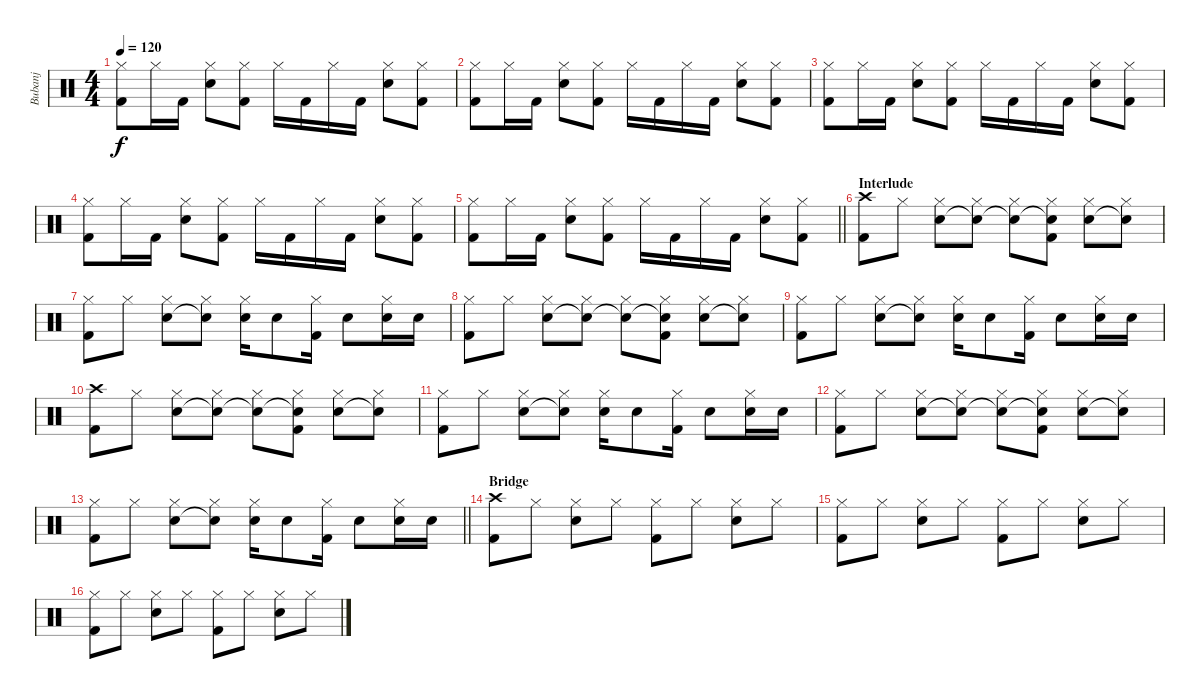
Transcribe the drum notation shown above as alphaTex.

\track ("Bubanj" "Bubanj") {instrument percussion}
\staff {score}
\articulation defaults
\ts (4 4)
\tempo 120
\clef neutral
\ks c
("Hi-Hat (closed)" "Kick (hit) 2").8{dy f} "Hi-Hat (closed)".16 "Kick (hit) 2".16 ("Hi-Hat (closed)" "Electric Snare (hit)").8 ("Hi-Hat (closed)" "Kick (hit) 2").8 "Hi-Hat (closed)".16 "Kick (hit) 2".16 "Hi-Hat (closed)".16 "Kick (hit) 2".16 ("Hi-Hat (closed)" "Electric Snare (hit)").8 ("Hi-Hat (closed)" "Kick (hit) 2").8 |
("Hi-Hat (closed)" "Kick (hit) 2").8 "Hi-Hat (closed)".16 "Kick (hit) 2".16 ("Hi-Hat (closed)" "Electric Snare (hit)").8 ("Hi-Hat (closed)" "Kick (hit) 2").8 "Hi-Hat (closed)".16 "Kick (hit) 2".16 "Hi-Hat (closed)".16 "Kick (hit) 2".16 ("Hi-Hat (closed)" "Electric Snare (hit)").8 ("Hi-Hat (closed)" "Kick (hit) 2").8 |
("Hi-Hat (closed)" "Kick (hit) 2").8 "Hi-Hat (closed)".16 "Kick (hit) 2".16 ("Hi-Hat (closed)" "Electric Snare (hit)").8 ("Hi-Hat (closed)" "Kick (hit) 2").8 "Hi-Hat (closed)".16 "Kick (hit) 2".16 "Hi-Hat (closed)".16 "Kick (hit) 2".16 ("Hi-Hat (closed)" "Electric Snare (hit)").8 ("Hi-Hat (closed)" "Kick (hit) 2").8 |
("Hi-Hat (closed)" "Kick (hit) 2").8 "Hi-Hat (closed)".16 "Kick (hit) 2".16 ("Hi-Hat (closed)" "Electric Snare (hit)").8 ("Hi-Hat (closed)" "Kick (hit) 2").8 "Hi-Hat (closed)".16 "Kick (hit) 2".16 "Hi-Hat (closed)".16 "Kick (hit) 2".16 ("Hi-Hat (closed)" "Electric Snare (hit)").8 ("Hi-Hat (closed)" "Kick (hit) 2").8 |
\barLineRight lightlight
("Hi-Hat (closed)" "Kick (hit) 2").8 "Hi-Hat (closed)".16 "Kick (hit) 2".16 ("Hi-Hat (closed)" "Electric Snare (hit)").8 ("Hi-Hat (closed)" "Kick (hit) 2").8 "Hi-Hat (closed)".16 "Kick (hit) 2".16 "Hi-Hat (closed)".16 "Kick (hit) 2".16 ("Hi-Hat (closed)" "Electric Snare (hit)").8 ("Hi-Hat (closed)" "Kick (hit) 2").8 |
\section ("" "Interlude")
("Crash high (hit)" "Kick (hit) 2").8{volume 14} "Hi-Hat (closed)".8 ("Hi-Hat (closed)" "Electric Snare (hit)").8 ("Hi-Hat (closed)" "Snare (hit)"{t}).8 ("Hi-Hat (closed)" "Snare (hit)"{t}).8 ("Hi-Hat (closed)" "Snare (hit)"{t} "Kick (hit) 2").8 ("Hi-Hat (closed)" "Electric Snare (hit)").8 ("Hi-Hat (closed)" "Snare (hit)"{t}).8 |
("Hi-Hat (closed)" "Kick (hit) 2").8 "Hi-Hat (closed)".8 ("Hi-Hat (closed)" "Electric Snare (hit)").8 ("Hi-Hat (closed)" "Snare (hit)"{t}).8 ("Hi-Hat (closed)" "Electric Snare (hit)").16 "Electric Snare (hit)".8 ("Hi-Hat (closed)" "Kick (hit) 2").16 "Electric Snare (hit)".8 ("Hi-Hat (closed)" "Electric Snare (hit)").16 "Electric Snare (hit)".16 |
("Hi-Hat (closed)" "Kick (hit) 2").8 "Hi-Hat (closed)".8 ("Hi-Hat (closed)" "Electric Snare (hit)").8 ("Hi-Hat (closed)" "Snare (hit)"{t}).8 ("Hi-Hat (closed)" "Snare (hit)"{t}).8 ("Hi-Hat (closed)" "Snare (hit)"{t} "Kick (hit) 2").8 ("Hi-Hat (closed)" "Electric Snare (hit)").8 ("Hi-Hat (closed)" "Snare (hit)"{t}).8 |
("Hi-Hat (closed)" "Kick (hit) 2").8 "Hi-Hat (closed)".8 ("Hi-Hat (closed)" "Electric Snare (hit)").8 ("Hi-Hat (closed)" "Snare (hit)"{t}).8 ("Hi-Hat (closed)" "Electric Snare (hit)").16 "Electric Snare (hit)".8 ("Hi-Hat (closed)" "Kick (hit) 2").16 "Electric Snare (hit)".8 ("Hi-Hat (closed)" "Electric Snare (hit)").16 "Electric Snare (hit)".16 |
("Crash high (hit)" "Kick (hit) 2").8 "Hi-Hat (closed)".8 ("Hi-Hat (closed)" "Electric Snare (hit)").8 ("Hi-Hat (closed)" "Snare (hit)"{t}).8 ("Hi-Hat (closed)" "Snare (hit)"{t}).8 ("Hi-Hat (closed)" "Snare (hit)"{t} "Kick (hit) 2").8 ("Hi-Hat (closed)" "Electric Snare (hit)").8 ("Hi-Hat (closed)" "Snare (hit)"{t}).8 |
("Hi-Hat (closed)" "Kick (hit) 2").8 "Hi-Hat (closed)".8 ("Hi-Hat (closed)" "Electric Snare (hit)").8 ("Hi-Hat (closed)" "Snare (hit)"{t}).8 ("Hi-Hat (closed)" "Electric Snare (hit)").16 "Electric Snare (hit)".8 ("Hi-Hat (closed)" "Kick (hit) 2").16 "Electric Snare (hit)".8 ("Hi-Hat (closed)" "Electric Snare (hit)").16 "Electric Snare (hit)".16 |
("Hi-Hat (closed)" "Kick (hit) 2").8 "Hi-Hat (closed)".8 ("Hi-Hat (closed)" "Electric Snare (hit)").8 ("Hi-Hat (closed)" "Snare (hit)"{t}).8 ("Hi-Hat (closed)" "Snare (hit)"{t}).8 ("Hi-Hat (closed)" "Snare (hit)"{t} "Kick (hit) 2").8 ("Hi-Hat (closed)" "Electric Snare (hit)").8 ("Hi-Hat (closed)" "Snare (hit)"{t}).8 |
\barLineRight lightlight
("Hi-Hat (closed)" "Kick (hit) 2").8 "Hi-Hat (closed)".8 ("Hi-Hat (closed)" "Electric Snare (hit)").8 ("Hi-Hat (closed)" "Snare (hit)"{t}).8 ("Hi-Hat (closed)" "Electric Snare (hit)").16 "Electric Snare (hit)".8 ("Hi-Hat (closed)" "Kick (hit) 2").16 "Electric Snare (hit)".8 ("Hi-Hat (closed)" "Electric Snare (hit)").16 "Electric Snare (hit)".16 |
\section ("" "Bridge")
("Crash high (hit)" "Kick (hit) 2").8 "Hi-Hat (closed)".8 ("Hi-Hat (closed)" "Electric Snare (hit)").8 "Hi-Hat (closed)".8 ("Hi-Hat (closed)" "Kick (hit) 2").8 "Hi-Hat (closed)".8 ("Hi-Hat (closed)" "Electric Snare (hit)").8 "Hi-Hat (closed)".8 |
("Hi-Hat (closed)" "Kick (hit) 2").8 "Hi-Hat (closed)".8 ("Hi-Hat (closed)" "Electric Snare (hit)").8 "Hi-Hat (closed)".8 ("Hi-Hat (closed)" "Kick (hit) 2").8 "Hi-Hat (closed)".8 ("Hi-Hat (closed)" "Electric Snare (hit)").8 "Hi-Hat (closed)".8 |
("Hi-Hat (closed)" "Kick (hit) 2").8 "Hi-Hat (closed)".8 ("Hi-Hat (closed)" "Electric Snare (hit)").8 "Hi-Hat (closed)".8 ("Hi-Hat (closed)" "Kick (hit) 2").8 "Hi-Hat (closed)".8 ("Hi-Hat (closed)" "Electric Snare (hit)").8 "Hi-Hat (closed)".8
